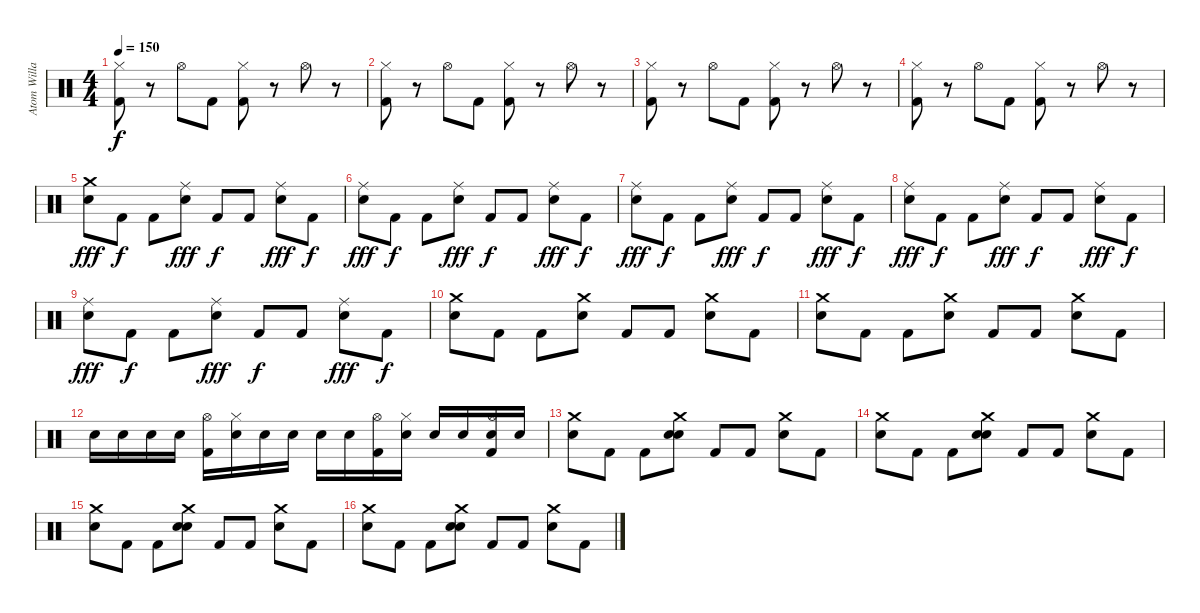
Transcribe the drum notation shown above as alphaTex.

\track ("Atom Willard - Drums" "Atom Willa") {instrument percussion}
\staff {score}
\articulation defaults
\ts (4 4)
\tempo 150
\clef neutral
\ks c
("Hi-Hat (closed)" "Kick (hit) 2").8{dy f} r.8 "Hi-Hat (open)".8 "Kick (hit) 2".8 ("Hi-Hat (closed)" "Kick (hit) 2").8 r.8 "Hi-Hat (open)".8 r.8 |
("Hi-Hat (closed)" "Kick (hit) 2").8 r.8 "Hi-Hat (open)".8 "Kick (hit) 2".8 ("Hi-Hat (closed)" "Kick (hit) 2").8 r.8 "Hi-Hat (open)".8 r.8 |
("Hi-Hat (closed)" "Kick (hit) 2").8 r.8 "Hi-Hat (open)".8 "Kick (hit) 2".8 ("Hi-Hat (closed)" "Kick (hit) 2").8 r.8 "Hi-Hat (open)".8 r.8 |
("Hi-Hat (closed)" "Kick (hit) 2").8 r.8 "Hi-Hat (open)".8 "Kick (hit) 2".8 ("Hi-Hat (closed)" "Kick (hit) 2").8 r.8 "Hi-Hat (open)".8 r.8 |
("Crash medium (hit)" "Electric Snare (hit)").8{dy fff} "Kick (hit) 2".8{dy f} "Kick (hit) 2".8 ("Ride (middle)" "Electric Snare (hit)").8{dy fff} "Kick (hit) 2".8{dy f} "Kick (hit) 2".8 ("Ride (middle)" "Electric Snare (hit)").8{dy fff} "Kick (hit) 2".8{dy f} |
("Ride (middle)" "Electric Snare (hit)").8{dy fff} "Kick (hit) 2".8{dy f} "Kick (hit) 2".8 ("Ride (middle)" "Electric Snare (hit)").8{dy fff} "Kick (hit) 2".8{dy f} "Kick (hit) 2".8 ("Ride (middle)" "Electric Snare (hit)").8{dy fff} "Kick (hit) 2".8{dy f} |
("Ride (middle)" "Electric Snare (hit)").8{dy fff} "Kick (hit) 2".8{dy f} "Kick (hit) 2".8 ("Ride (middle)" "Electric Snare (hit)").8{dy fff} "Kick (hit) 2".8{dy f} "Kick (hit) 2".8 ("Ride (middle)" "Electric Snare (hit)").8{dy fff} "Kick (hit) 2".8{dy f} |
("Ride (middle)" "Electric Snare (hit)").8{dy fff} "Kick (hit) 2".8{dy f} "Kick (hit) 2".8 ("Ride (middle)" "Electric Snare (hit)").8{dy fff} "Kick (hit) 2".8{dy f} "Kick (hit) 2".8 ("Ride (middle)" "Electric Snare (hit)").8{dy fff} "Kick (hit) 2".8{dy f} |
("Ride (middle)" "Electric Snare (hit)").8{dy fff} "Kick (hit) 2".8{dy f} "Kick (hit) 2".8 ("Ride (middle)" "Electric Snare (hit)").8{dy fff} "Kick (hit) 2".8{dy f} "Kick (hit) 2".8 ("Ride (middle)" "Electric Snare (hit)").8{dy fff} "Kick (hit) 2".8{dy f} |
("Crash medium (hit)" "Electric Snare (hit)").8 "Kick (hit) 2".8 "Kick (hit) 2".8 ("Crash medium (hit)" "Electric Snare (hit)").8 "Kick (hit) 2".8 "Kick (hit) 2".8 ("Crash medium (hit)" "Electric Snare (hit)").8 "Kick (hit) 2".8 |
("Crash medium (hit)" "Electric Snare (hit)").8 "Kick (hit) 2".8 "Kick (hit) 2".8 ("Crash medium (hit)" "Electric Snare (hit)").8 "Kick (hit) 2".8 "Kick (hit) 2".8 ("Crash medium (hit)" "Electric Snare (hit)").8 "Kick (hit) 2".8 |
"Electric Snare (hit)".16 "Electric Snare (hit)".16 "Electric Snare (hit)".16 "Electric Snare (hit)".16 ("Hi-Hat (open)" "Kick (hit) 2").16 ("Hi-Hat (closed)" "Electric Snare (hit)").16 "Electric Snare (hit)".16 "Electric Snare (hit)".16 "Electric Snare (hit)".16 "Electric Snare (hit)".16 ("Hi-Hat (open)" "Kick (hit) 2").16 ("Hi-Hat (closed)" "Electric Snare (hit)").16 "Electric Snare (hit)".16 "Electric Snare (hit)".16 ("Hi-Hat (open)" "Electric Snare (hit)" "Kick (hit) 2").16 "Electric Snare (hit)".16 |
("Crash medium (hit)" "Electric Snare (hit)").8 "Kick (hit) 2".8 "Kick (hit) 2".8 ("Crash medium (hit)" "Electric Snare (hit)" "Snare (hit)").8 "Kick (hit) 2".8 "Kick (hit) 2".8 ("Crash medium (hit)" "Electric Snare (hit)").8 "Kick (hit) 2".8 |
("Crash medium (hit)" "Electric Snare (hit)").8 "Kick (hit) 2".8 "Kick (hit) 2".8 ("Crash medium (hit)" "Electric Snare (hit)" "Snare (hit)").8 "Kick (hit) 2".8 "Kick (hit) 2".8 ("Crash medium (hit)" "Electric Snare (hit)").8 "Kick (hit) 2".8 |
("Crash medium (hit)" "Electric Snare (hit)").8 "Kick (hit) 2".8 "Kick (hit) 2".8 ("Crash medium (hit)" "Electric Snare (hit)" "Snare (hit)").8 "Kick (hit) 2".8 "Kick (hit) 2".8 ("Crash medium (hit)" "Electric Snare (hit)").8 "Kick (hit) 2".8 |
("Crash medium (hit)" "Electric Snare (hit)").8 "Kick (hit) 2".8 "Kick (hit) 2".8 ("Crash medium (hit)" "Electric Snare (hit)" "Snare (hit)").8 "Kick (hit) 2".8 "Kick (hit) 2".8 ("Crash medium (hit)" "Electric Snare (hit)").8 "Kick (hit) 2".8
